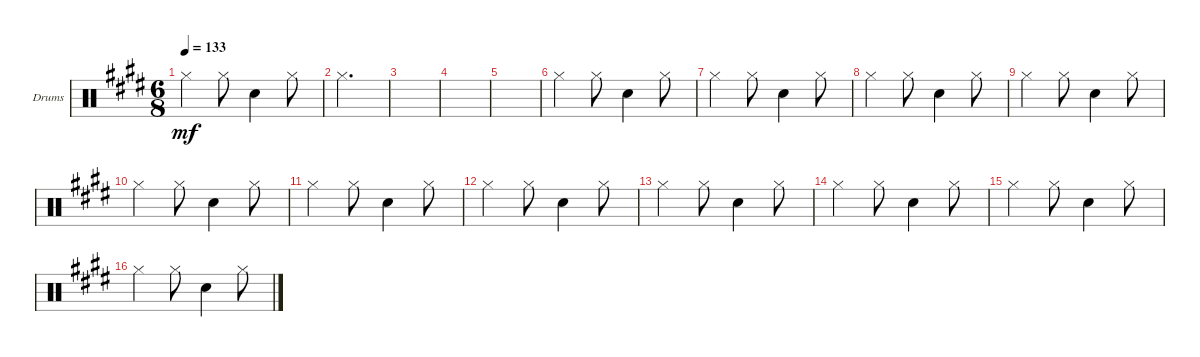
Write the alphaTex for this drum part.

\defaultSystemsLayout 4
\bracketExtendMode groupsimilarinstruments
\firstSystemTrackNameOrientation horizontal
\otherSystemsTrackNameOrientation horizontal
\track ("Drumkit" "Drums") {instrument percussion}
\staff {score}
\articulation defaults
\ts (6 8)
\tempo 133
\clef neutral
\scale
0.333333
\ks e "Hi-Hat (closed)".4{dy mf} "Hi-Hat (closed)".8 "Snare (hit) 2".4 "Hi-Hat (closed)".8
|
\scale
0.333333 "Hi-Hat (closed)".2{d} |
\scale
0.333333 |
\scale
0.333333 |
\scale
0.333333 |
\scale
0.333333 "Hi-Hat (closed)".4 "Hi-Hat (closed)".8 "Snare (hit) 2".4 "Hi-Hat (closed)".8 |
\scale
0.333333 "Hi-Hat (closed)".4 "Hi-Hat (closed)".8 "Snare (hit) 2".4 "Hi-Hat (closed)".8 |
\scale
0.333333 "Hi-Hat (closed)".4 "Hi-Hat (closed)".8 "Snare (hit) 2".4 "Hi-Hat (closed)".8 |
\scale
0.333333 "Hi-Hat (closed)".4 "Hi-Hat (closed)".8 "Snare (hit) 2".4 "Hi-Hat (closed)".8 |
\scale
0.333333 "Hi-Hat (closed)".4 "Hi-Hat (closed)".8 "Snare (hit) 2".4 "Hi-Hat (closed)".8 |
\scale
0.333333 "Hi-Hat (closed)".4 "Hi-Hat (closed)".8 "Snare (hit) 2".4 "Hi-Hat (closed)".8 |
\scale
0.333333 "Hi-Hat (closed)".4 "Hi-Hat (closed)".8 "Snare (hit) 2".4 "Hi-Hat (closed)".8 |
\scale
0.333333 "Hi-Hat (closed)".4 "Hi-Hat (closed)".8 "Snare (hit) 2".4 "Hi-Hat (closed)".8 |
\scale
0.333333 "Hi-Hat (closed)".4 "Hi-Hat (closed)".8 "Snare (hit) 2".4 "Hi-Hat (closed)".8 |
\scale
0.333333 "Hi-Hat (closed)".4 "Hi-Hat (closed)".8 "Snare (hit) 2".4 "Hi-Hat (closed)".8 |
\scale
0.333333 "Hi-Hat (closed)".4 "Hi-Hat (closed)".8 "Snare (hit) 2".4 "Hi-Hat (closed)".8
